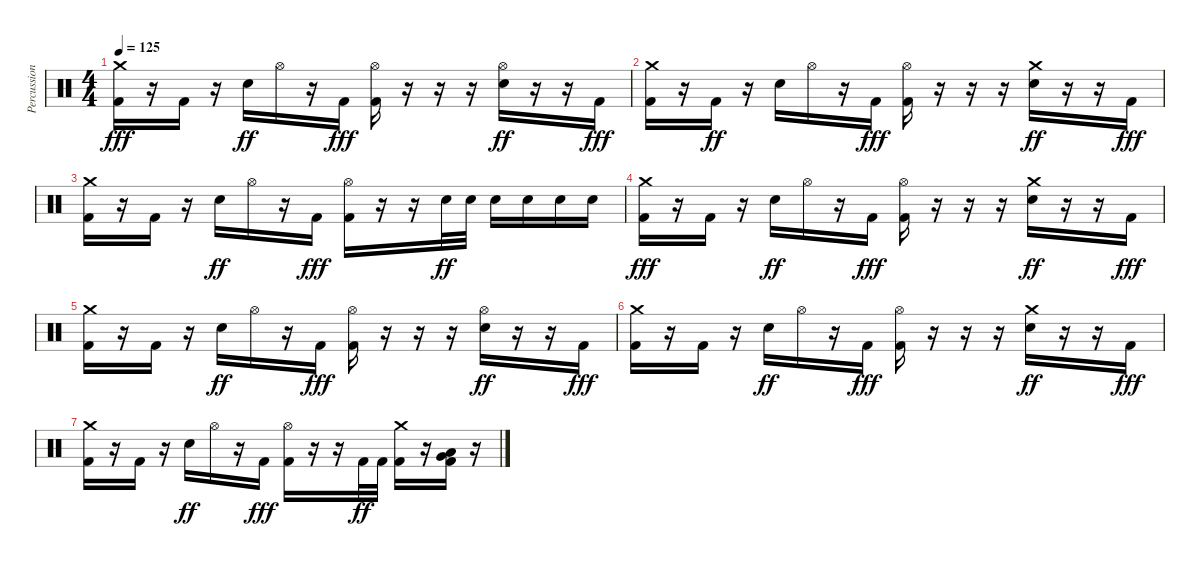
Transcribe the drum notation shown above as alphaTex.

\track ("Percussion" "Percussion") {instrument percussion}
\staff {score}
\articulation defaults
\ts (4 4)
\tempo 125
\clef neutral
\ks c
("Crash medium (hit)" "Kick (hit) 2").16{dy fff} r.16 "Kick (hit) 2".16 r.16 "Electric Snare (hit)".16{dy ff} "Hi-Hat (open)".16 r.16 "Kick (hit) 2".16{dy fff} ("Hi-Hat (open)" "Kick (hit) 2").16 r.16 r.16 r.16 ("Hi-Hat (open)" "Electric Snare (hit)").16{dy ff} r.16 r.16 "Kick (hit) 2".16{dy fff} |
("Crash medium (hit)" "Kick (hit) 2").16 r.16 "Kick (hit) 2".16{dy ff} r.16 "Electric Snare (hit)".16 "Hi-Hat (open)".16 r.16 "Kick (hit) 2".16{dy fff} ("Hi-Hat (open)" "Kick (hit) 2").16 r.16 r.16 r.16 ("Crash medium (hit)" "Electric Snare (hit)").16{dy ff} r.16 r.16 "Kick (hit) 2".16{dy fff} |
("Crash medium (hit)" "Kick (hit) 2").16 r.16 "Kick (hit) 2".16 r.16 "Electric Snare (hit)".16{dy ff} "Hi-Hat (open)".16 r.16 "Kick (hit) 2".16{dy fff} ("Hi-Hat (open)" "Kick (hit) 2").16 r.16 r.16 "Electric Snare (hit)".32{dy ff} "Electric Snare (hit)".32 "Electric Snare (hit)".16 "Electric Snare (hit)".16 "Electric Snare (hit)".16 "Electric Snare (hit)".16 |
("Crash medium (hit)" "Kick (hit) 2").16{dy fff} r.16 "Kick (hit) 2".16 r.16 "Electric Snare (hit)".16{dy ff} "Hi-Hat (open)".16 r.16 "Kick (hit) 2".16{dy fff} ("Hi-Hat (open)" "Kick (hit) 2").16 r.16 r.16 r.16 ("Crash medium (hit)" "Electric Snare (hit)").16{dy ff} r.16 r.16 "Kick (hit) 2".16{dy fff} |
("Crash medium (hit)" "Kick (hit) 2").16 r.16 "Kick (hit) 2".16 r.16 "Electric Snare (hit)".16{dy ff} "Hi-Hat (open)".16 r.16 "Kick (hit) 2".16{dy fff} ("Hi-Hat (open)" "Kick (hit) 2").16 r.16 r.16 r.16 ("Hi-Hat (open)" "Electric Snare (hit)").16{dy ff} r.16 r.16 "Kick (hit) 2".16{dy fff} |
("Crash medium (hit)" "Kick (hit) 2").16 r.16 "Kick (hit) 2".16 r.16 "Electric Snare (hit)".16{dy ff} "Hi-Hat (open)".16 r.16 "Kick (hit) 2".16{dy fff} ("Hi-Hat (open)" "Kick (hit) 2").16 r.16 r.16 r.16 ("Crash medium (hit)" "Electric Snare (hit)").16{dy ff} r.16 r.16 "Kick (hit) 2".16{dy fff} |
("Crash medium (hit)" "Kick (hit) 2").16 r.16 "Kick (hit) 2".16 r.16 "Electric Snare (hit)".16{dy ff} "Hi-Hat (open)".16 r.16 "Kick (hit) 2".16{dy fff} ("Hi-Hat (open)" "Kick (hit) 2").16 r.16 r.16 "Kick (hit) 2".32{dy ff} "Kick (hit) 2".32 ("Crash medium (hit)" "Kick (hit) 2").16 r.16 ("Low Tom (hit)" "Very Low Tom (hit)" "Kick (hit) 2").16 r.16
